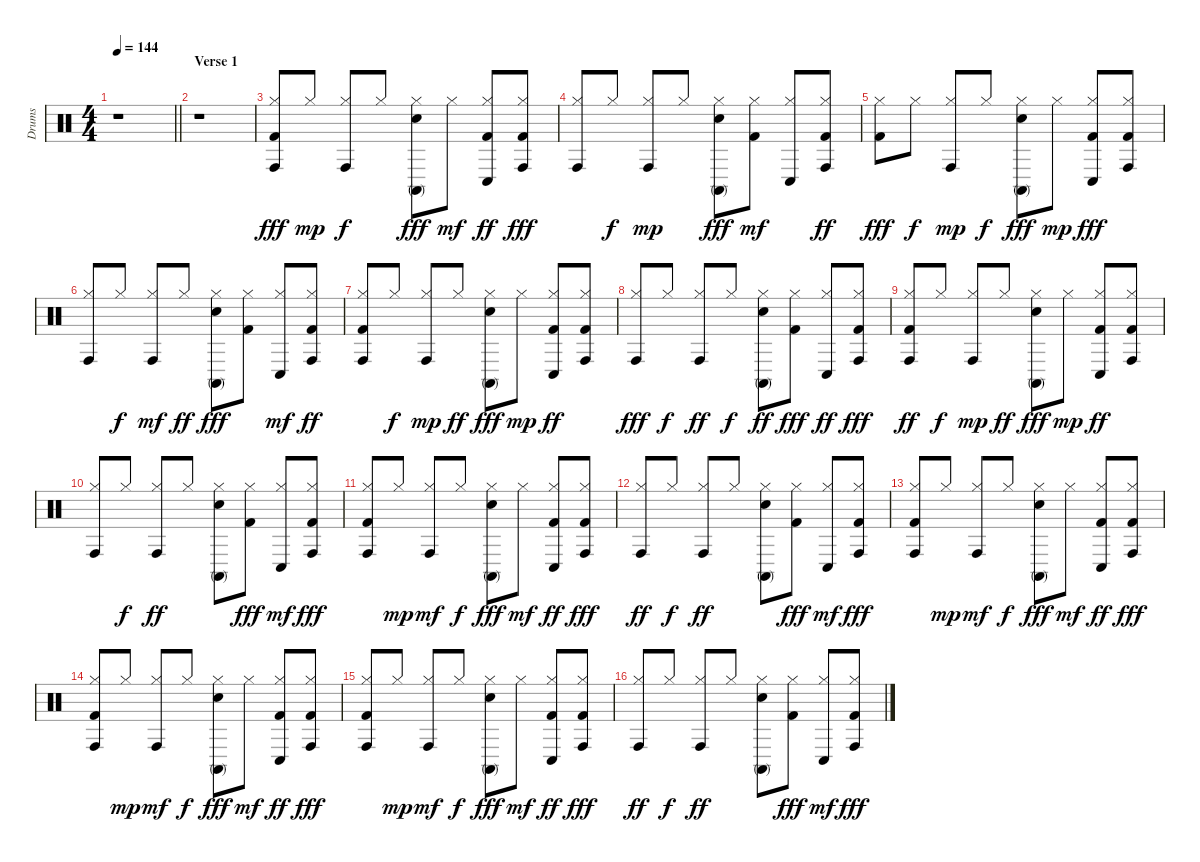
\track ("Drums" "Drums") {instrument percussion}
\staff {score}
\articulation defaults
\ts (4 4)
\tempo 144
\clef neutral
\barLineRight lightlight
\ks c
r.1{dy fff} |
\section ("" "Verse 1")
r.1 |
("Conga high (hit)" "Kick (hit) 2" "Hi-Hat (closed)").8 "Hi-Hat (closed)".8{dy mp} ("Conga high (hit)" "Hi-Hat (closed)").8{dy f} "Hi-Hat (closed)".8 ("Conga high (mute)" "Snare (hit) 2" "Hi-Hat (closed)").8{dy fff} "Hi-Hat (closed)".8{dy mf} ("Conga low (hit)" "Kick (hit) 2" "Hi-Hat (closed)").8{dy ff} ("Conga high (hit)" "Kick (hit) 2" "Hi-Hat (closed)").8{dy fff} |
("Conga high (hit)" "Hi-Hat (closed)").8 "Hi-Hat (closed)".8{dy f} ("Conga high (hit)" "Hi-Hat (closed)").8{dy mp} "Hi-Hat (closed)".8 ("Conga high (mute)" "Snare (hit) 2" "Hi-Hat (closed)").8{dy fff} ("Kick (hit) 2" "Hi-Hat (closed)").8{dy mf} ("Conga low (hit)" "Hi-Hat (closed)").8 ("Conga high (hit)" "Kick (hit) 2" "Hi-Hat (closed)").8{dy ff} |
("Kick (hit) 2" "Hi-Hat (closed)").8{dy fff} "Hi-Hat (closed)".8{dy f} ("Conga high (hit)" "Hi-Hat (closed)").8{dy mp} "Hi-Hat (closed)".8{dy f} ("Conga high (mute)" "Snare (hit) 2" "Hi-Hat (closed)").8{dy fff} "Hi-Hat (closed)".8{dy mp} ("Conga low (hit)" "Kick (hit) 2" "Hi-Hat (closed)").8{dy fff} ("Conga high (hit)" "Kick (hit) 2" "Hi-Hat (closed)").8 |
("Conga high (hit)" "Hi-Hat (closed)").8 "Hi-Hat (closed)".8{dy f} ("Conga high (hit)" "Hi-Hat (closed)").8{dy mf} "Hi-Hat (closed)".8{dy ff} ("Conga high (mute)" "Snare (hit) 2" "Hi-Hat (closed)").8{dy fff} ("Kick (hit) 2" "Hi-Hat (closed)").8 ("Conga low (hit)" "Hi-Hat (closed)").8{dy mf} ("Conga high (hit)" "Kick (hit) 2" "Hi-Hat (closed)").8{dy ff} |
("Conga high (hit)" "Kick (hit) 2" "Hi-Hat (closed)").8 "Hi-Hat (closed)".8{dy f} ("Conga high (hit)" "Hi-Hat (closed)").8{dy mp} "Hi-Hat (closed)".8{dy ff} ("Conga high (mute)" "Snare (hit) 2" "Hi-Hat (closed)").8{dy fff} "Hi-Hat (closed)".8{dy mp} ("Conga low (hit)" "Kick (hit) 2" "Hi-Hat (closed)").8{dy ff} ("Conga high (hit)" "Kick (hit) 2" "Hi-Hat (closed)").8 |
("Conga high (hit)" "Hi-Hat (closed)").8{dy fff} "Hi-Hat (closed)".8{dy f} ("Conga high (hit)" "Hi-Hat (closed)").8{dy ff} "Hi-Hat (closed)".8{dy f} ("Conga high (mute)" "Snare (hit) 2" "Hi-Hat (closed)").8{dy ff} ("Kick (hit) 2" "Hi-Hat (closed)").8{dy fff} ("Conga low (hit)" "Hi-Hat (closed)").8{dy ff} ("Conga high (hit)" "Kick (hit) 2" "Hi-Hat (closed)").8{dy fff} |
("Conga high (hit)" "Kick (hit) 2" "Hi-Hat (closed)").8{dy ff} "Hi-Hat (closed)".8{dy f} ("Conga high (hit)" "Hi-Hat (closed)").8{dy mp} "Hi-Hat (closed)".8{dy ff} ("Conga high (mute)" "Snare (hit) 2" "Hi-Hat (closed)").8{dy fff} "Hi-Hat (closed)".8{dy mp} ("Conga low (hit)" "Kick (hit) 2" "Hi-Hat (closed)").8{dy ff} ("Conga high (hit)" "Kick (hit) 2" "Hi-Hat (closed)").8 |
("Conga high (hit)" "Hi-Hat (closed)").8 "Hi-Hat (closed)".8{dy f} ("Conga high (hit)" "Hi-Hat (closed)").8{dy ff} "Hi-Hat (closed)".8 ("Conga high (mute)" "Snare (hit) 2" "Hi-Hat (closed)").8 ("Kick (hit) 2" "Hi-Hat (closed)").8{dy fff} ("Conga low (hit)" "Hi-Hat (closed)").8{dy mf} ("Conga high (hit)" "Kick (hit) 2" "Hi-Hat (closed)").8{dy fff} |
("Conga high (hit)" "Kick (hit) 2" "Hi-Hat (closed)").8 "Hi-Hat (closed)".8{dy mp} ("Conga high (hit)" "Hi-Hat (closed)").8{dy mf} "Hi-Hat (closed)".8{dy f} ("Conga high (mute)" "Snare (hit) 2" "Hi-Hat (closed)").8{dy fff} "Hi-Hat (closed)".8{dy mf} ("Conga low (hit)" "Kick (hit) 2" "Hi-Hat (closed)").8{dy ff} ("Conga high (hit)" "Kick (hit) 2" "Hi-Hat (closed)").8{dy fff} |
("Conga high (hit)" "Hi-Hat (closed)").8{dy ff} "Hi-Hat (closed)".8{dy f} ("Conga high (hit)" "Hi-Hat (closed)").8{dy ff} "Hi-Hat (closed)".8 ("Conga high (mute)" "Snare (hit) 2" "Hi-Hat (closed)").8 ("Kick (hit) 2" "Hi-Hat (closed)").8{dy fff} ("Conga low (hit)" "Hi-Hat (closed)").8{dy mf} ("Conga high (hit)" "Kick (hit) 2" "Hi-Hat (closed)").8{dy fff} |
("Conga high (hit)" "Kick (hit) 2" "Hi-Hat (closed)").8 "Hi-Hat (closed)".8{dy mp} ("Conga high (hit)" "Hi-Hat (closed)").8{dy mf} "Hi-Hat (closed)".8{dy f} ("Conga high (mute)" "Snare (hit) 2" "Hi-Hat (closed)").8{dy fff} "Hi-Hat (closed)".8{dy mf} ("Conga low (hit)" "Kick (hit) 2" "Hi-Hat (closed)").8{dy ff} ("Conga high (hit)" "Kick (hit) 2" "Hi-Hat (closed)").8{dy fff} |
("Conga high (hit)" "Kick (hit) 2" "Hi-Hat (closed)").8 "Hi-Hat (closed)".8{dy mp} ("Conga high (hit)" "Hi-Hat (closed)").8{dy mf} "Hi-Hat (closed)".8{dy f} ("Conga high (mute)" "Snare (hit) 2" "Hi-Hat (closed)").8{dy fff} "Hi-Hat (closed)".8{dy mf} ("Conga low (hit)" "Kick (hit) 2" "Hi-Hat (closed)").8{dy ff} ("Conga high (hit)" "Kick (hit) 2" "Hi-Hat (closed)").8{dy fff} |
("Conga high (hit)" "Kick (hit) 2" "Hi-Hat (closed)").8 "Hi-Hat (closed)".8{dy mp} ("Conga high (hit)" "Hi-Hat (closed)").8{dy mf} "Hi-Hat (closed)".8{dy f} ("Conga high (mute)" "Snare (hit) 2" "Hi-Hat (closed)").8{dy fff} "Hi-Hat (closed)".8{dy mf} ("Conga low (hit)" "Kick (hit) 2" "Hi-Hat (closed)").8{dy ff} ("Conga high (hit)" "Kick (hit) 2" "Hi-Hat (closed)").8{dy fff} |
("Conga high (hit)" "Hi-Hat (closed)").8{dy ff} "Hi-Hat (closed)".8{dy f} ("Conga high (hit)" "Hi-Hat (closed)").8{dy ff} "Hi-Hat (closed)".8 ("Conga high (mute)" "Snare (hit) 2" "Hi-Hat (closed)").8 ("Kick (hit) 2" "Hi-Hat (closed)").8{dy fff} ("Conga low (hit)" "Hi-Hat (closed)").8{dy mf} ("Conga high (hit)" "Kick (hit) 2" "Hi-Hat (closed)").8{dy fff}
